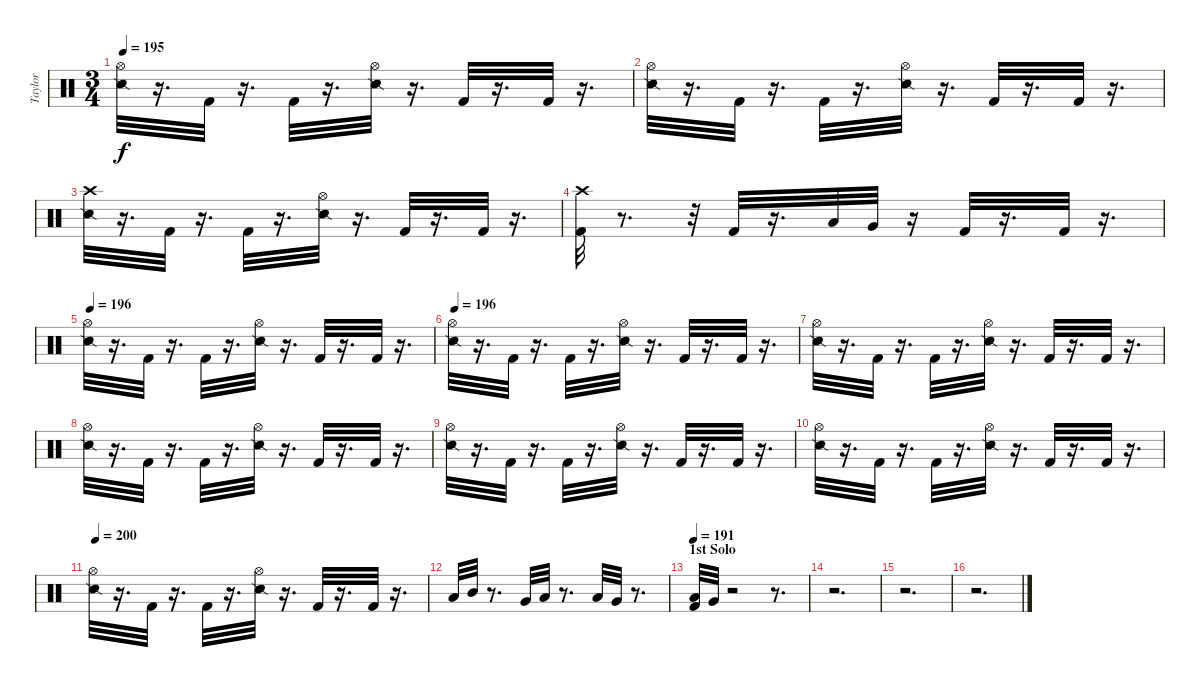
\track ("Taylor" "Taylor") {instrument percussion}
\staff {score}
\articulation defaults
\ts (3 4)
\tempo 195
\clef neutral
\ks c
("Snare (side stick) 2" "Hi-Hat (open)").32{dy f} r.16{d} "Kick (hit) 2".32 r.16{d} "Kick (hit) 2".32 r.16{d} ("Hi-Hat (open)" "Snare (side stick) 2").32 r.16{d} "Kick (hit) 2".32 r.16{d} "Kick (hit) 2".32 r.16{d} |
("Hi-Hat (open)" "Snare (side stick) 2").32 r.16{d} "Kick (hit) 2".32 r.16{d} "Kick (hit) 2".32 r.16{d} ("Snare (side stick) 2" "Hi-Hat (open)").32 r.16{d} "Kick (hit) 2".32 r.16{d} "Kick (hit) 2".32 r.16{d} |
("Snare (side stick) 2" "Crash high (hit)").32 r.16{d} "Kick (hit) 2".32 r.16{d} "Kick (hit) 2".32 r.16{d} ("Snare (side stick) 2" "Hi-Hat (open)").32 r.16{d} "Kick (hit) 2".32 r.16{d} "Kick (hit) 2".32 r.16{d} |
("Crash high (hit)" "Kick (hit) 2").32 r.8{d} r.32 "Kick (hit) 2".32 r.16{d} "Low Floor Tom (hit)".32 "Very Low Tom (hit)".32 r.16 "Kick (hit) 2".32 r.16{d} "Kick (hit) 2".32 r.16{d} |
\tempo 196
("Hi-Hat (open)" "Snare (side stick) 2").32 r.16{d} "Kick (hit) 2".32 r.16{d} "Kick (hit) 2".32 r.16{d} ("Snare (side stick) 2" "Hi-Hat (open)").32 r.16{d} "Kick (hit) 2".32 r.16{d} "Kick (hit) 2".32 r.16{d} |
\tempo 196
("Hi-Hat (open)" "Snare (side stick) 2").32 r.16{d} "Kick (hit) 2".32 r.16{d} "Kick (hit) 2".32 r.16{d} ("Hi-Hat (open)" "Snare (side stick) 2").32 r.16{d} "Kick (hit) 2".32 r.16{d} "Kick (hit) 2".32 r.16{d} |
("Hi-Hat (open)" "Snare (side stick) 2").32 r.16{d} "Kick (hit) 2".32 r.16{d} "Kick (hit) 2".32 r.16{d} ("Hi-Hat (open)" "Snare (side stick) 2").32 r.16{d} "Kick (hit) 2".32 r.16{d} "Kick (hit) 2".32 r.16{d} |
("Snare (side stick) 2" "Hi-Hat (open)").32 r.16{d} "Kick (hit) 2".32 r.16{d} "Kick (hit) 2".32 r.16{d} ("Hi-Hat (open)" "Snare (side stick) 2").32 r.16{d} "Kick (hit) 2".32 r.16{d} "Kick (hit) 2".32 r.16{d} |
("Hi-Hat (open)" "Snare (side stick) 2").32 r.16{d} "Kick (hit) 2".32 r.16{d} "Kick (hit) 2".32 r.16{d} ("Snare (side stick) 2" "Hi-Hat (open)").32 r.16{d} "Kick (hit) 2".32 r.16{d} "Kick (hit) 2".32 r.16{d} |
("Hi-Hat (open)" "Snare (side stick) 2").32 r.16{d} "Kick (hit) 2".32 r.16{d} "Kick (hit) 2".32 r.16{d} ("Snare (side stick) 2" "Hi-Hat (open)").32 r.16{d} "Kick (hit) 2".32 r.16{d} "Kick (hit) 2".32 r.16{d} |
\tempo 200
("Hi-Hat (open)" "Snare (side stick) 2").32 r.16{d} "Kick (hit) 2".32 r.16{d} "Kick (hit) 2".32 r.16{d} ("Hi-Hat (open)" "Snare (side stick) 2").32 r.16{d} "Kick (hit) 2".32 r.16{d} "Kick (hit) 2".32 r.16{d} |
"Low Tom (hit)".32 "Mid Tom (hit)".32 r.8{d} "Very Low Tom (hit)".32 "Low Tom (hit)".32 r.8{d} "Low Floor Tom (hit)".32 "Very Low Tom (hit)".32 r.8{d} |
\section ("" "1st Solo")
\tempo 191
("Kick (hit) 2" "Low Floor Tom (hit)").32 "Very Low Tom (hit)".32 r.2 r.8{d} |
r.2{d} |
r.2{d} |
r.2{d}
